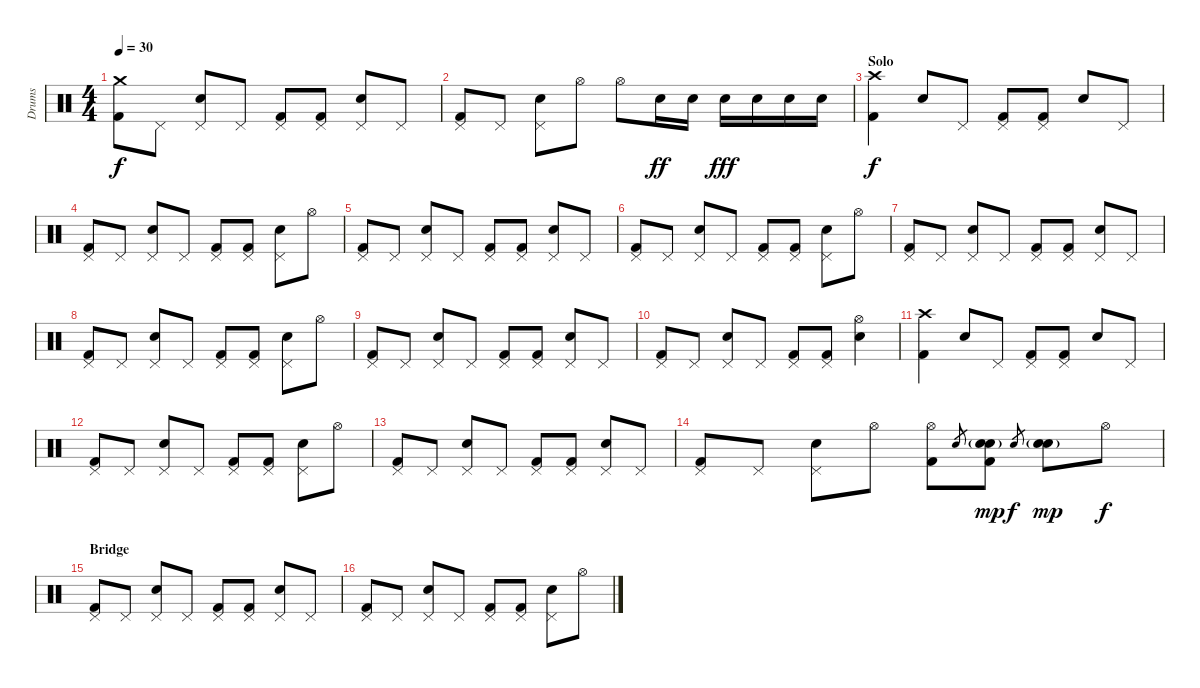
\track ("Drums" "Drums") {instrument percussion}
\staff {score}
\articulation defaults
\ts (4 4)
\tempo 30
\clef neutral
\ks c
("Crash medium (hit)" "Kick (hit) 2").8{dy f} "Pedal Hi-Hat (hit)".8 ("Pedal Hi-Hat (hit)" "Snare (hit) 2").8 "Pedal Hi-Hat (hit)".8 ("Pedal Hi-Hat (hit)" "Kick (hit) 2").8 ("Pedal Hi-Hat (hit)" "Kick (hit) 2").8 ("Pedal Hi-Hat (hit)" "Snare (hit) 2").8 "Pedal Hi-Hat (hit)".8 |
("Pedal Hi-Hat (hit)" "Kick (hit) 2").8 "Pedal Hi-Hat (hit)".8 ("Pedal Hi-Hat (hit)" "Snare (hit) 2").8 "Hi-Hat (open)".8 "Hi-Hat (open)".8 "Snare (hit) 2".16{dy ff} "Snare (hit) 2".16 "Snare (hit) 2".16{dy fff} "Snare (hit) 2".16 "Snare (hit) 2".16 "Snare (hit) 2".16 |
\section ("" "Solo")
("Crash high (hit)" "Kick (hit) 2").4{dy f} "Snare (hit) 2".8 "Pedal Hi-Hat (hit)".8 ("Pedal Hi-Hat (hit)" "Kick (hit) 2").8 ("Pedal Hi-Hat (hit)" "Kick (hit) 2").8 "Snare (hit) 2".8 "Pedal Hi-Hat (hit)".8 |
("Pedal Hi-Hat (hit)" "Kick (hit) 2").8 "Pedal Hi-Hat (hit)".8 ("Pedal Hi-Hat (hit)" "Snare (hit) 2").8 "Pedal Hi-Hat (hit)".8 ("Pedal Hi-Hat (hit)" "Kick (hit) 2").8 ("Pedal Hi-Hat (hit)" "Kick (hit) 2").8 ("Pedal Hi-Hat (hit)" "Snare (hit) 2").8 "Hi-Hat (open)".8 |
("Pedal Hi-Hat (hit)" "Kick (hit) 2").8 "Pedal Hi-Hat (hit)".8 ("Pedal Hi-Hat (hit)" "Snare (hit) 2").8 "Pedal Hi-Hat (hit)".8 ("Pedal Hi-Hat (hit)" "Kick (hit) 2").8 ("Pedal Hi-Hat (hit)" "Kick (hit) 2").8 ("Pedal Hi-Hat (hit)" "Snare (hit) 2").8 "Pedal Hi-Hat (hit)".8 |
("Pedal Hi-Hat (hit)" "Kick (hit) 2").8 "Pedal Hi-Hat (hit)".8 ("Pedal Hi-Hat (hit)" "Snare (hit) 2").8 "Pedal Hi-Hat (hit)".8 ("Pedal Hi-Hat (hit)" "Kick (hit) 2").8 ("Pedal Hi-Hat (hit)" "Kick (hit) 2").8 ("Pedal Hi-Hat (hit)" "Snare (hit) 2").8 "Hi-Hat (open)".8 |
("Pedal Hi-Hat (hit)" "Kick (hit) 2").8 "Pedal Hi-Hat (hit)".8 ("Pedal Hi-Hat (hit)" "Snare (hit) 2").8 "Pedal Hi-Hat (hit)".8 ("Pedal Hi-Hat (hit)" "Kick (hit) 2").8 ("Pedal Hi-Hat (hit)" "Kick (hit) 2").8 ("Pedal Hi-Hat (hit)" "Snare (hit) 2").8 "Pedal Hi-Hat (hit)".8 |
("Pedal Hi-Hat (hit)" "Kick (hit) 2").8 "Pedal Hi-Hat (hit)".8 ("Pedal Hi-Hat (hit)" "Snare (hit) 2").8 "Pedal Hi-Hat (hit)".8 ("Pedal Hi-Hat (hit)" "Kick (hit) 2").8 ("Pedal Hi-Hat (hit)" "Kick (hit) 2").8 ("Pedal Hi-Hat (hit)" "Snare (hit) 2").8 "Hi-Hat (open)".8 |
("Pedal Hi-Hat (hit)" "Kick (hit) 2").8 "Pedal Hi-Hat (hit)".8 ("Pedal Hi-Hat (hit)" "Snare (hit) 2").8 "Pedal Hi-Hat (hit)".8 ("Pedal Hi-Hat (hit)" "Kick (hit) 2").8 ("Pedal Hi-Hat (hit)" "Kick (hit) 2").8 ("Pedal Hi-Hat (hit)" "Snare (hit) 2").8 "Pedal Hi-Hat (hit)".8 |
("Pedal Hi-Hat (hit)" "Kick (hit) 2").8 "Pedal Hi-Hat (hit)".8 ("Pedal Hi-Hat (hit)" "Snare (hit) 2").8 "Pedal Hi-Hat (hit)".8 ("Pedal Hi-Hat (hit)" "Kick (hit) 2").8 ("Pedal Hi-Hat (hit)" "Kick (hit) 2").8 ("Hi-Hat (open)" "Snare (hit) 2").4 |
("Crash high (hit)" "Kick (hit) 2").4 "Snare (hit) 2".8 "Pedal Hi-Hat (hit)".8 ("Pedal Hi-Hat (hit)" "Kick (hit) 2").8 ("Pedal Hi-Hat (hit)" "Kick (hit) 2").8 "Snare (hit) 2".8 "Pedal Hi-Hat (hit)".8 |
("Pedal Hi-Hat (hit)" "Kick (hit) 2").8 "Pedal Hi-Hat (hit)".8 ("Pedal Hi-Hat (hit)" "Snare (hit) 2").8 "Pedal Hi-Hat (hit)".8 ("Pedal Hi-Hat (hit)" "Kick (hit) 2").8 ("Pedal Hi-Hat (hit)" "Kick (hit) 2").8 ("Pedal Hi-Hat (hit)" "Snare (hit) 2").8 "Hi-Hat (open)".8 |
("Pedal Hi-Hat (hit)" "Kick (hit) 2").8 "Pedal Hi-Hat (hit)".8 ("Pedal Hi-Hat (hit)" "Snare (hit) 2").8 "Pedal Hi-Hat (hit)".8 ("Pedal Hi-Hat (hit)" "Kick (hit) 2").8 ("Pedal Hi-Hat (hit)" "Kick (hit) 2").8 ("Pedal Hi-Hat (hit)" "Snare (hit) 2").8 "Pedal Hi-Hat (hit)".8 |
("Pedal Hi-Hat (hit)" "Kick (hit) 2").8 "Pedal Hi-Hat (hit)".8 ("Pedal Hi-Hat (hit)" "Snare (hit) 2").8 "Hi-Hat (open)".8 ("Hi-Hat (open)" "Kick (hit) 2").8 "Snare (hit) 2".8{gr} ("Snare (hit) 2" "Electric Snare (hit)"{g} "Kick (hit) 2").8{dy mp} "Snare (hit) 2".8{gr dy f} ("Snare (hit) 2" "Electric Snare (hit)"{g}).8{dy mp} "Hi-Hat (open)".8{dy f} |
\section ("" "Bridge")
("Pedal Hi-Hat (hit)" "Kick (hit) 2").8 "Pedal Hi-Hat (hit)".8 ("Pedal Hi-Hat (hit)" "Snare (hit) 2").8 "Pedal Hi-Hat (hit)".8 ("Pedal Hi-Hat (hit)" "Kick (hit) 2").8 ("Pedal Hi-Hat (hit)" "Kick (hit) 2").8 ("Pedal Hi-Hat (hit)" "Snare (hit) 2").8 "Pedal Hi-Hat (hit)".8 |
("Pedal Hi-Hat (hit)" "Kick (hit) 2").8 "Pedal Hi-Hat (hit)".8 ("Pedal Hi-Hat (hit)" "Snare (hit) 2").8 "Pedal Hi-Hat (hit)".8 ("Pedal Hi-Hat (hit)" "Kick (hit) 2").8 ("Pedal Hi-Hat (hit)" "Kick (hit) 2").8 ("Pedal Hi-Hat (hit)" "Snare (hit) 2").8 "Hi-Hat (open)".8
